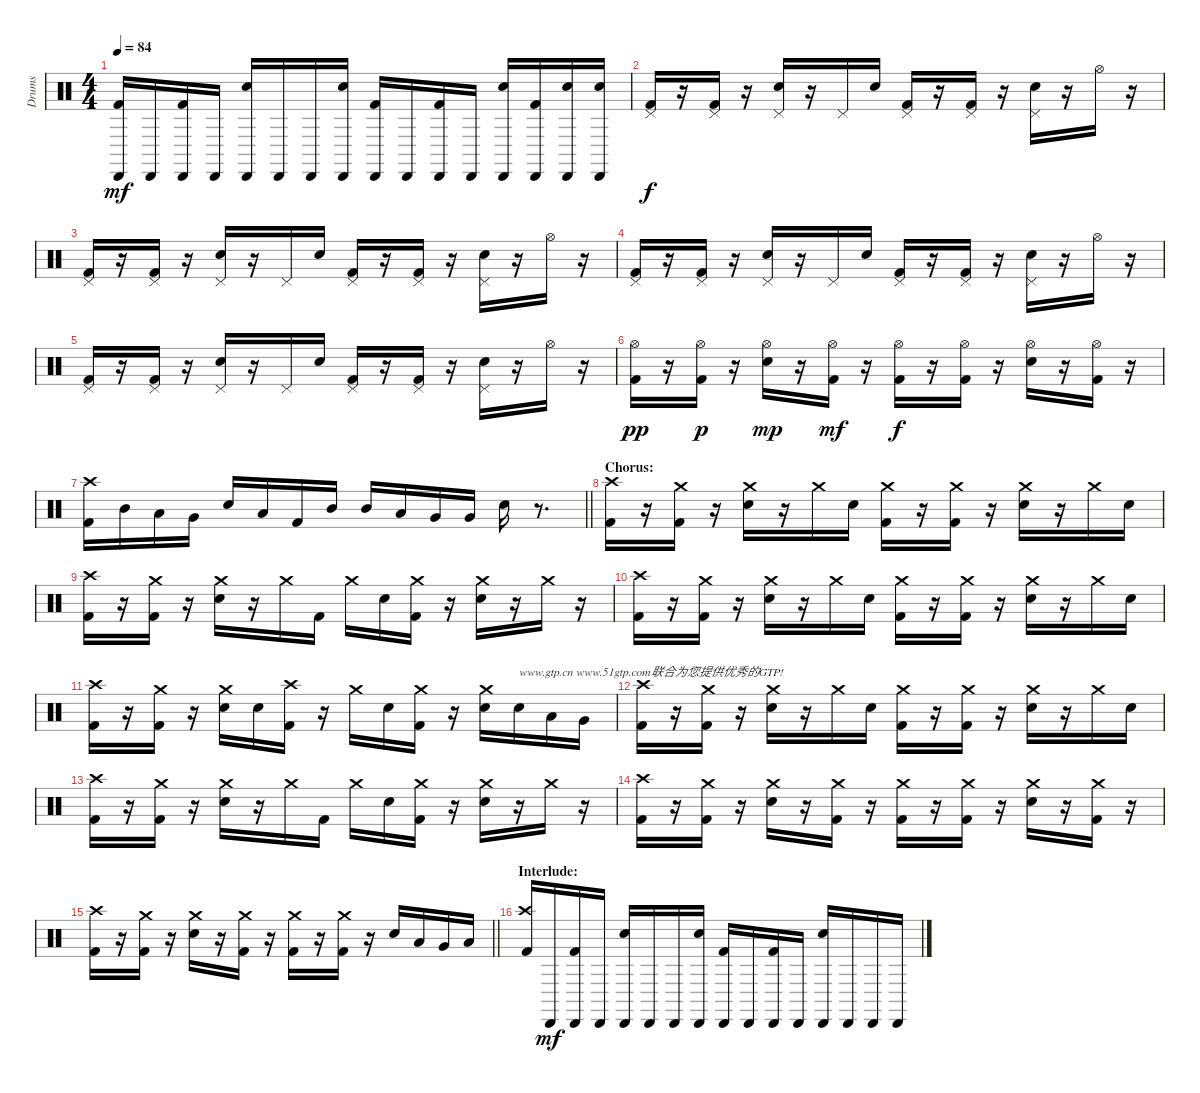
\track ("Drums" "Drums") {instrument percussion}
\staff {score}
\articulation defaults
\ts (4 4)
\tempo 84
\clef neutral
\ks c
("Cabasa (hit)" "Kick (hit) 2").16{dy mf} "Cabasa (hit)".16 ("Cabasa (hit)" "Kick (hit) 2").16 "Cabasa (hit)".16 ("Cabasa (hit)" "Electric Snare (hit)").16 "Cabasa (hit)".16 "Cabasa (hit)".16 ("Cabasa (hit)" "Electric Snare (hit)").16 ("Cabasa (hit)" "Kick (hit) 2").16 "Cabasa (hit)".16 ("Cabasa (hit)" "Kick (hit) 2").16 "Cabasa (hit)".16 ("Cabasa (hit)" "Electric Snare (hit)").16 ("Cabasa (hit)" "Kick (hit) 2").16 ("Cabasa (hit)" "Electric Snare (hit)").16 ("Cabasa (hit)" "Electric Snare (hit)").16 |
("Pedal Hi-Hat (hit)" "Kick (hit) 2").16{dy f} r.16 ("Pedal Hi-Hat (hit)" "Kick (hit) 2").16 r.16 ("Pedal Hi-Hat (hit)" "Electric Snare (hit)").16 r.16 "Pedal Hi-Hat (hit)".16 "Electric Snare (hit)".16 ("Pedal Hi-Hat (hit)" "Kick (hit) 2").16 r.16 ("Pedal Hi-Hat (hit)" "Kick (hit) 2").16 r.16 ("Pedal Hi-Hat (hit)" "Electric Snare (hit)").16 r.16 "Hi-Hat (open)".16 r.16 |
("Pedal Hi-Hat (hit)" "Kick (hit) 2").16 r.16 ("Pedal Hi-Hat (hit)" "Kick (hit) 2").16 r.16 ("Pedal Hi-Hat (hit)" "Electric Snare (hit)").16 r.16 "Pedal Hi-Hat (hit)".16 "Electric Snare (hit)".16 ("Pedal Hi-Hat (hit)" "Kick (hit) 2").16 r.16 ("Pedal Hi-Hat (hit)" "Kick (hit) 2").16 r.16 ("Pedal Hi-Hat (hit)" "Electric Snare (hit)").16 r.16 "Hi-Hat (open)".16 r.16 |
("Pedal Hi-Hat (hit)" "Kick (hit) 2").16 r.16 ("Pedal Hi-Hat (hit)" "Kick (hit) 2").16 r.16 ("Pedal Hi-Hat (hit)" "Electric Snare (hit)").16 r.16 "Pedal Hi-Hat (hit)".16 "Electric Snare (hit)".16 ("Pedal Hi-Hat (hit)" "Kick (hit) 2").16 r.16 ("Pedal Hi-Hat (hit)" "Kick (hit) 2").16 r.16 ("Pedal Hi-Hat (hit)" "Electric Snare (hit)").16 r.16 "Hi-Hat (open)".16 r.16 |
("Pedal Hi-Hat (hit)" "Kick (hit) 2").16 r.16 ("Pedal Hi-Hat (hit)" "Kick (hit) 2").16 r.16 ("Pedal Hi-Hat (hit)" "Electric Snare (hit)").16 r.16 "Pedal Hi-Hat (hit)".16 "Electric Snare (hit)".16 ("Pedal Hi-Hat (hit)" "Kick (hit) 2").16 r.16 ("Pedal Hi-Hat (hit)" "Kick (hit) 2").16 r.16 ("Pedal Hi-Hat (hit)" "Electric Snare (hit)").16 r.16 "Hi-Hat (open)".16 r.16 |
("Hi-Hat (open)" "Kick (hit) 2").16{dy pp} r.16 ("Hi-Hat (open)" "Kick (hit) 2").16{dy p} r.16 ("Hi-Hat (open)" "Electric Snare (hit)").16{dy mp} r.16 ("Hi-Hat (open)" "Kick (hit) 2").16{dy mf} r.16 ("Hi-Hat (open)" "Kick (hit) 2").16{dy f} r.16 ("Hi-Hat (open)" "Kick (hit) 2").16 r.16 ("Hi-Hat (open)" "Electric Snare (hit)").16 r.16 ("Hi-Hat (open)" "Kick (hit) 2").16 r.16 |
\barLineRight lightlight
("Crash high (hit)" "Kick (hit) 2").16 "Mid Tom (hit)".16 "Low Tom (hit)".16 "Very Low Tom (hit)".16 "Electric Snare (hit)".16 "Low Tom (hit)".16 "Kick (hit) 2".16 "Mid Tom (hit)".16 "Mid Tom (hit)".16 "Low Tom (hit)".16 "Very Low Tom (hit)".16 "Very Low Tom (hit)".16 "Electric Snare (hit)".16 r.8{d} |
\section ("" "Chorus:")
("Crash high (hit)" "Kick (hit) 2").16 r.16 ("Crash medium (hit)" "Kick (hit) 2").16 r.16 ("Crash medium (hit)" "Electric Snare (hit)").16 r.16 "Crash medium (hit)".16 "Electric Snare (hit)".16 ("Crash medium (hit)" "Kick (hit) 2").16 r.16 ("Crash medium (hit)" "Kick (hit) 2").16 r.16 ("Crash medium (hit)" "Electric Snare (hit)").16 r.16 "Crash medium (hit)".16 "Electric Snare (hit)".16 |
("Crash high (hit)" "Kick (hit) 2").16 r.16 ("Crash medium (hit)" "Kick (hit) 2").16 r.16 ("Crash medium (hit)" "Electric Snare (hit)").16 r.16 "Crash medium (hit)".16 "Kick (hit) 2".16 "Crash medium (hit)".16 "Electric Snare (hit)".16 ("Crash medium (hit)" "Kick (hit) 2").16 r.16 ("Crash medium (hit)" "Electric Snare (hit)").16 r.16 "Crash medium (hit)".16 r.16 |
("Crash high (hit)" "Kick (hit) 2").16 r.16 ("Crash medium (hit)" "Kick (hit) 2").16 r.16 ("Crash medium (hit)" "Electric Snare (hit)").16 r.16 "Crash medium (hit)".16 "Electric Snare (hit)".16 ("Crash medium (hit)" "Kick (hit) 2").16 r.16 ("Crash medium (hit)" "Kick (hit) 2").16 r.16 ("Crash medium (hit)" "Electric Snare (hit)").16 r.16 "Crash medium (hit)".16 "Electric Snare (hit)".16 |
("Crash high (hit)" "Kick (hit) 2").16 r.16 ("Crash medium (hit)" "Kick (hit) 2").16 r.16 ("Crash medium (hit)" "Electric Snare (hit)").16 "Electric Snare (hit)".16 ("Crash high (hit)" "Kick (hit) 2").16 r.16 "Crash medium (hit)".16 "Electric Snare (hit)".16 ("Crash medium (hit)" "Kick (hit) 2").16 r.16 ("Crash medium (hit)" "Electric Snare (hit)").16 "Electric Snare (hit)".16{txt "www.gtp.cn www.51gtp.com联合为您提供优秀的GTP!"} "Low Tom (hit)".16 "Very Low Tom (hit)".16 |
("Crash high (hit)" "Kick (hit) 2").16 r.16 ("Crash medium (hit)" "Kick (hit) 2").16 r.16 ("Crash medium (hit)" "Electric Snare (hit)").16 r.16 "Crash medium (hit)".16 "Electric Snare (hit)".16 ("Crash medium (hit)" "Kick (hit) 2").16 r.16 ("Crash medium (hit)" "Kick (hit) 2").16 r.16 ("Crash medium (hit)" "Electric Snare (hit)").16 r.16 "Crash medium (hit)".16 "Electric Snare (hit)".16 |
("Crash high (hit)" "Kick (hit) 2").16 r.16 ("Crash medium (hit)" "Kick (hit) 2").16 r.16 ("Crash medium (hit)" "Electric Snare (hit)").16 r.16 "Crash medium (hit)".16 "Kick (hit) 2".16 "Crash medium (hit)".16 "Electric Snare (hit)".16 ("Crash medium (hit)" "Kick (hit) 2").16 r.16 ("Crash medium (hit)" "Electric Snare (hit)").16 r.16 "Crash medium (hit)".16 r.16 |
("Crash high (hit)" "Kick (hit) 2").16 r.16 ("Crash medium (hit)" "Kick (hit) 2").16 r.16 ("Crash medium (hit)" "Electric Snare (hit)").16 r.16 ("Crash medium (hit)" "Kick (hit) 2").16 r.16 ("Crash medium (hit)" "Kick (hit) 2").16 r.16 ("Crash medium (hit)" "Kick (hit) 2").16 r.16 ("Crash medium (hit)" "Electric Snare (hit)").16 r.16 ("Crash medium (hit)" "Kick (hit) 2").16 r.16 |
\barLineRight lightlight
("Crash high (hit)" "Kick (hit) 2").16 r.16 ("Crash medium (hit)" "Kick (hit) 2").16 r.16 ("Crash medium (hit)" "Electric Snare (hit)").16 r.16 ("Crash medium (hit)" "Kick (hit) 2").16 r.16 ("Crash medium (hit)" "Kick (hit) 2").16 r.16 ("Crash medium (hit)" "Kick (hit) 2").16 r.16 "Electric Snare (hit)".16 "Low Tom (hit)".16 "Very Low Tom (hit)".16 "Low Floor Tom (hit)".16 |
\section ("" "Interlude:")
("Crash high (hit)" "Kick (hit) 2").16 "Cabasa (hit)".16{dy mf} ("Cabasa (hit)" "Kick (hit) 2").16 "Cabasa (hit)".16 ("Cabasa (hit)" "Electric Snare (hit)").16 "Cabasa (hit)".16 "Cabasa (hit)".16 ("Cabasa (hit)" "Electric Snare (hit)").16 ("Cabasa (hit)" "Kick (hit) 2").16 "Cabasa (hit)".16 ("Cabasa (hit)" "Kick (hit) 2").16 "Cabasa (hit)".16 ("Cabasa (hit)" "Electric Snare (hit)").16 "Cabasa (hit)".16 "Cabasa (hit)".16 "Cabasa (hit)".16
